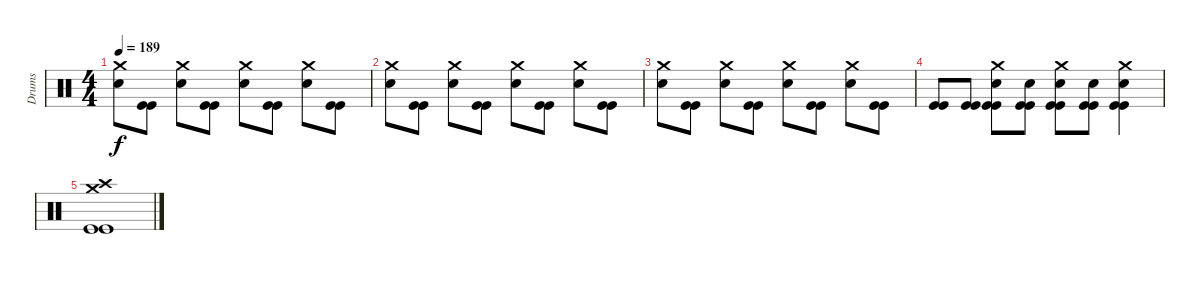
\track ("Drums" "Drums") {instrument percussion}
\staff {score}
\articulation defaults
\ts (4 4)
\tempo 189
\clef neutral
\ks c
("Crash medium (hit)" "Electric Snare (hit)").8{dy f} ("Kick (hit)" "Kick (hit)").8 ("Crash medium (hit)" "Electric Snare (hit)").8 ("Kick (hit)" "Kick (hit)").8 ("Crash medium (hit)" "Electric Snare (hit)").8 ("Kick (hit)" "Kick (hit)").8 ("Crash medium (hit)" "Electric Snare (hit)").8 ("Kick (hit)" "Kick (hit)").8 |
("Crash medium (hit)" "Electric Snare (hit)").8 ("Kick (hit)" "Kick (hit)").8 ("Crash medium (hit)" "Electric Snare (hit)").8 ("Kick (hit)" "Kick (hit)").8 ("Crash medium (hit)" "Electric Snare (hit)").8 ("Kick (hit)" "Kick (hit)").8 ("Crash medium (hit)" "Electric Snare (hit)").8 ("Kick (hit)" "Kick (hit)").8 |
("Crash medium (hit)" "Electric Snare (hit)").8 ("Kick (hit)" "Kick (hit)").8 ("Crash medium (hit)" "Electric Snare (hit)").8 ("Kick (hit)" "Kick (hit)").8 ("Crash medium (hit)" "Electric Snare (hit)").8 ("Kick (hit)" "Kick (hit)").8 ("Crash medium (hit)" "Electric Snare (hit)").8 ("Kick (hit)" "Kick (hit)").8 |
("Kick (hit)" "Kick (hit)").8 ("Kick (hit)" "Kick (hit)").8 ("Crash medium (hit)" "Electric Snare (hit)" "Kick (hit)" "Kick (hit)").8 ("Electric Snare (hit)" "Kick (hit)" "Kick (hit)").8 ("Crash medium (hit)" "Electric Snare (hit)" "Kick (hit)" "Kick (hit)").8 ("Electric Snare (hit)" "Kick (hit)" "Kick (hit)").8 ("Crash medium (hit)" "Electric Snare (hit)" "Kick (hit)" "Kick (hit)").4 |
("Crash high (hit)" "Crash medium (hit)" "Kick (hit)" "Kick (hit)").1
